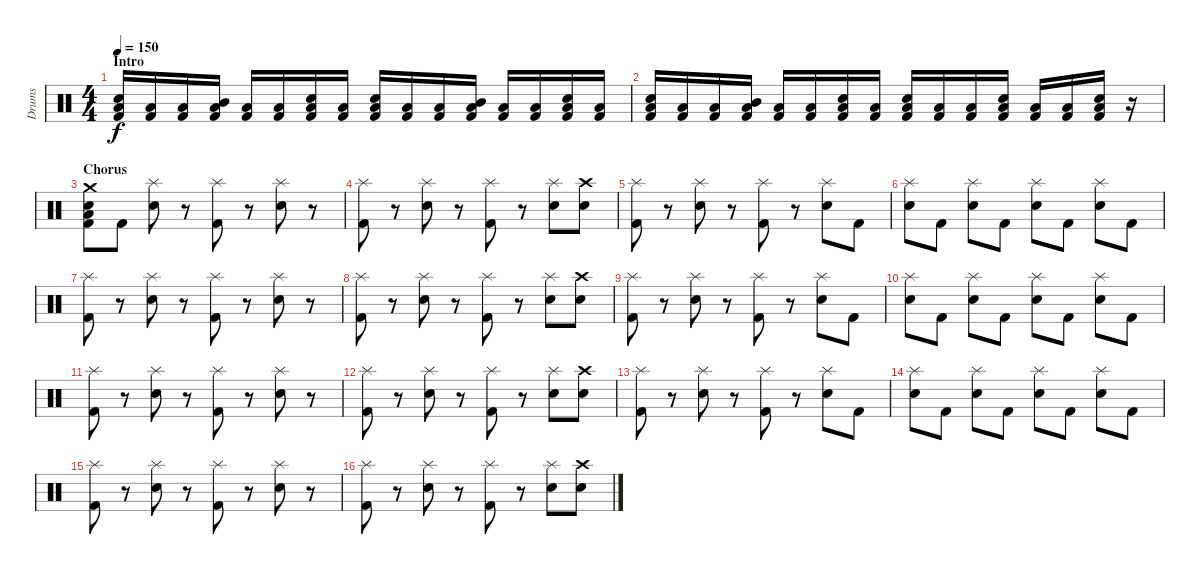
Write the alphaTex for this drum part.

\track ("Drums" "Drums") {instrument percussion}
\staff {score}
\articulation defaults
\ts (4 4)
\section ("" "Intro")
\tempo 150
\clef neutral
\ks c
("Electric Snare (hit)" "Low Floor Tom (hit)" "Kick (hit) 2").16{dy f} ("Low Floor Tom (hit)" "Kick (hit) 2").16 ("Low Floor Tom (hit)" "Kick (hit) 2").16 ("Mid Tom (hit)" "Low Floor Tom (hit)" "Kick (hit) 2").16 ("Low Floor Tom (hit)" "Kick (hit) 2").16 ("Low Floor Tom (hit)" "Kick (hit) 2").16 ("Electric Snare (hit)" "Low Floor Tom (hit)" "Kick (hit) 2").16 ("Low Floor Tom (hit)" "Kick (hit) 2").16 ("Electric Snare (hit)" "Low Floor Tom (hit)" "Kick (hit) 2").16 ("Low Floor Tom (hit)" "Kick (hit) 2").16 ("Low Floor Tom (hit)" "Kick (hit) 2").16 ("Mid Tom (hit)" "Low Floor Tom (hit)" "Kick (hit) 2").16 ("Low Floor Tom (hit)" "Kick (hit) 2").16 ("Low Floor Tom (hit)" "Kick (hit) 2").16 ("Electric Snare (hit)" "Low Floor Tom (hit)" "Kick (hit) 2").16 ("Low Floor Tom (hit)" "Kick (hit) 2").16 |
("Electric Snare (hit)" "Low Floor Tom (hit)" "Kick (hit) 2").16 ("Low Floor Tom (hit)" "Kick (hit) 2").16 ("Low Floor Tom (hit)" "Kick (hit) 2").16 ("Mid Tom (hit)" "Low Floor Tom (hit)" "Kick (hit) 2").16 ("Low Floor Tom (hit)" "Kick (hit) 2").16 ("Low Floor Tom (hit)" "Kick (hit) 2").16 ("Electric Snare (hit)" "Low Floor Tom (hit)" "Kick (hit) 2").16 ("Low Floor Tom (hit)" "Kick (hit) 2").16 ("Electric Snare (hit)" "Low Floor Tom (hit)" "Kick (hit) 2").16 ("Low Floor Tom (hit)" "Kick (hit) 2").16 ("Low Floor Tom (hit)" "Kick (hit) 2").16 ("Electric Snare (hit)" "Low Floor Tom (hit)" "Kick (hit) 2").16 ("Low Floor Tom (hit)" "Kick (hit) 2").16 ("Low Floor Tom (hit)" "Kick (hit) 2").16 ("Electric Snare (hit)" "Low Floor Tom (hit)" "Kick (hit) 2").16 r.16 |
\section ("" "Chorus")
("Crash medium (hit)" "Electric Snare (hit)" "Low Floor Tom (hit)" "Kick (hit) 2").8 "Kick (hit) 2".8 ("Splash (hit)" "Electric Snare (hit)").8 r.8 ("Splash (hit)" "Kick (hit) 2").8 r.8 ("Splash (hit)" "Electric Snare (hit)").8 r.8 |
("Splash (hit)" "Kick (hit) 2").8 r.8 ("Splash (hit)" "Electric Snare (hit)").8 r.8 ("Splash (hit)" "Kick (hit) 2").8 r.8 ("Splash (hit)" "Electric Snare (hit)").8 ("Crash high (hit)" "Electric Snare (hit)").8 |
("Splash (hit)" "Kick (hit) 2").8 r.8 ("Splash (hit)" "Electric Snare (hit)").8 r.8 ("Splash (hit)" "Kick (hit) 2").8 r.8 ("Splash (hit)" "Electric Snare (hit)").8 "Kick (hit) 2".8 |
("Splash (hit)" "Electric Snare (hit)").8 "Kick (hit) 2".8 ("Splash (hit)" "Electric Snare (hit)").8 "Kick (hit) 2".8 ("Splash (hit)" "Electric Snare (hit)").8 "Kick (hit) 2".8 ("Splash (hit)" "Electric Snare (hit)").8 "Kick (hit) 2".8 |
("Splash (hit)" "Kick (hit) 2").8 r.8 ("Splash (hit)" "Electric Snare (hit)").8 r.8 ("Splash (hit)" "Kick (hit) 2").8 r.8 ("Splash (hit)" "Electric Snare (hit)").8 r.8 |
("Splash (hit)" "Kick (hit) 2").8 r.8 ("Splash (hit)" "Electric Snare (hit)").8 r.8 ("Splash (hit)" "Kick (hit) 2").8 r.8 ("Splash (hit)" "Electric Snare (hit)").8 ("Crash high (hit)" "Electric Snare (hit)").8 |
("Splash (hit)" "Kick (hit) 2").8 r.8 ("Splash (hit)" "Electric Snare (hit)").8 r.8 ("Splash (hit)" "Kick (hit) 2").8 r.8 ("Splash (hit)" "Electric Snare (hit)").8 "Kick (hit) 2".8 |
("Splash (hit)" "Electric Snare (hit)").8 "Kick (hit) 2".8 ("Splash (hit)" "Electric Snare (hit)").8 "Kick (hit) 2".8 ("Splash (hit)" "Electric Snare (hit)").8 "Kick (hit) 2".8 ("Splash (hit)" "Electric Snare (hit)").8 "Kick (hit) 2".8 |
("Splash (hit)" "Kick (hit) 2").8 r.8 ("Splash (hit)" "Electric Snare (hit)").8 r.8 ("Splash (hit)" "Kick (hit) 2").8 r.8 ("Splash (hit)" "Electric Snare (hit)").8 r.8 |
("Splash (hit)" "Kick (hit) 2").8 r.8 ("Splash (hit)" "Electric Snare (hit)").8 r.8 ("Splash (hit)" "Kick (hit) 2").8 r.8 ("Splash (hit)" "Electric Snare (hit)").8 ("Crash high (hit)" "Electric Snare (hit)").8 |
("Splash (hit)" "Kick (hit) 2").8 r.8 ("Splash (hit)" "Electric Snare (hit)").8 r.8 ("Splash (hit)" "Kick (hit) 2").8 r.8 ("Splash (hit)" "Electric Snare (hit)").8 "Kick (hit) 2".8 |
("Splash (hit)" "Electric Snare (hit)").8 "Kick (hit) 2".8 ("Splash (hit)" "Electric Snare (hit)").8 "Kick (hit) 2".8 ("Splash (hit)" "Electric Snare (hit)").8 "Kick (hit) 2".8 ("Splash (hit)" "Electric Snare (hit)").8 "Kick (hit) 2".8 |
("Splash (hit)" "Kick (hit) 2").8 r.8 ("Splash (hit)" "Electric Snare (hit)").8 r.8 ("Splash (hit)" "Kick (hit) 2").8 r.8 ("Splash (hit)" "Electric Snare (hit)").8 r.8 |
("Splash (hit)" "Kick (hit) 2").8 r.8 ("Splash (hit)" "Electric Snare (hit)").8 r.8 ("Splash (hit)" "Kick (hit) 2").8 r.8 ("Splash (hit)" "Electric Snare (hit)").8 ("Crash high (hit)" "Electric Snare (hit)").8
